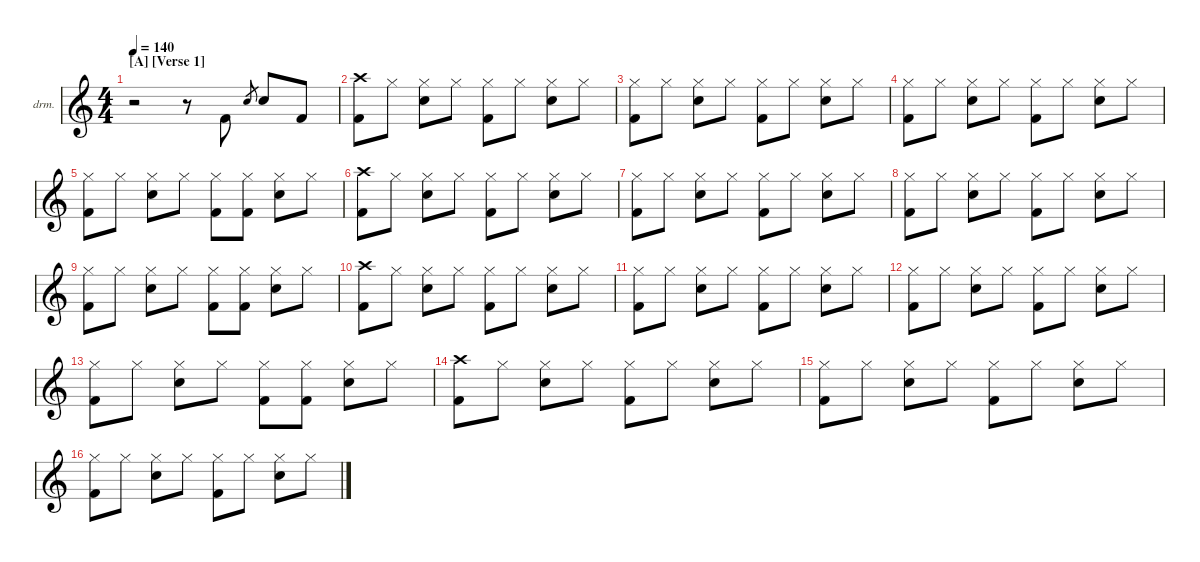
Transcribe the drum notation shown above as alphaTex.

\defaultSystemsLayout 4
\hideDynamics
\bracketExtendMode nobrackets
\firstSystemTrackNameOrientation horizontal
\track ("Sepehr Tajbakhsh {Nick Menza}" "drm.") {instrument percussion}
\staff {score}
\articulation defaults
\ts (4 4)
\beaming (8 2 2 2 2)
\section ("A" "[Verse 1]")
\tempo 140
\clef g2
\ks c
r.2{dy f beam Down} r.8{beam Down} "Kick (hit) 2".8{beam Up} "Snare (hit) 2".8{gr beam Up} "Snare (hit) 2".8{beam Up} "Kick (hit) 2".8{beam Up} |
("Crash high (hit)" "Kick (hit) 2").8{beam Down} "Hi-Hat (closed)".8{beam Down} ("Hi-Hat (closed)" "Snare (hit) 2").8{beam Down} "Hi-Hat (closed)".8{beam Down} ("Hi-Hat (closed)" "Kick (hit) 2").8{beam Down} "Hi-Hat (closed)".8{beam Down} ("Hi-Hat (closed)" "Snare (hit) 2").8{beam Down} "Hi-Hat (closed)".8{beam Down} |
("Hi-Hat (closed)" "Kick (hit) 2").8{beam Down} "Hi-Hat (closed)".8{beam Down} ("Hi-Hat (closed)" "Snare (hit) 2").8{beam Down} "Hi-Hat (closed)".8{beam Down} ("Hi-Hat (closed)" "Kick (hit) 2").8{beam Down} "Hi-Hat (closed)".8{beam Down} ("Hi-Hat (closed)" "Snare (hit) 2").8{beam Down} "Hi-Hat (closed)".8{beam Down} |
("Hi-Hat (closed)" "Kick (hit) 2").8{beam Down} "Hi-Hat (closed)".8{beam Down} ("Hi-Hat (closed)" "Snare (hit) 2").8{beam Down} "Hi-Hat (closed)".8{beam Down} ("Hi-Hat (closed)" "Kick (hit) 2").8{beam Down} "Hi-Hat (closed)".8{beam Down} ("Hi-Hat (closed)" "Snare (hit) 2").8{beam Down} "Hi-Hat (closed)".8{beam Down} |
("Hi-Hat (closed)" "Kick (hit) 2").8{beam Down} "Hi-Hat (closed)".8{beam Down} ("Hi-Hat (closed)" "Snare (hit) 2").8{beam Down} "Hi-Hat (closed)".8{beam Down} ("Hi-Hat (closed)" "Kick (hit) 2").8{beam Down} ("Hi-Hat (closed)" "Kick (hit) 2").8{beam Down} ("Hi-Hat (closed)" "Snare (hit) 2").8{beam Down} "Hi-Hat (closed)".8{beam Down} |
("Crash high (hit)" "Kick (hit) 2").8{beam Down} "Hi-Hat (closed)".8{beam Down} ("Hi-Hat (closed)" "Snare (hit) 2").8{beam Down} "Hi-Hat (closed)".8{beam Down} ("Hi-Hat (closed)" "Kick (hit) 2").8{beam Down} "Hi-Hat (closed)".8{beam Down} ("Hi-Hat (closed)" "Snare (hit) 2").8{beam Down} "Hi-Hat (closed)".8{beam Down} |
("Hi-Hat (closed)" "Kick (hit) 2").8{beam Down} "Hi-Hat (closed)".8{beam Down} ("Hi-Hat (closed)" "Snare (hit) 2").8{beam Down} "Hi-Hat (closed)".8{beam Down} ("Hi-Hat (closed)" "Kick (hit) 2").8{beam Down} "Hi-Hat (closed)".8{beam Down} ("Hi-Hat (closed)" "Snare (hit) 2").8{beam Down} "Hi-Hat (closed)".8{beam Down} |
("Hi-Hat (closed)" "Kick (hit) 2").8{beam Down} "Hi-Hat (closed)".8{beam Down} ("Hi-Hat (closed)" "Snare (hit) 2").8{beam Down} "Hi-Hat (closed)".8{beam Down} ("Hi-Hat (closed)" "Kick (hit) 2").8{beam Down} "Hi-Hat (closed)".8{beam Down} ("Hi-Hat (closed)" "Snare (hit) 2").8{beam Down} "Hi-Hat (closed)".8{beam Down} |
("Hi-Hat (closed)" "Kick (hit) 2").8{beam Down} "Hi-Hat (closed)".8{beam Down} ("Hi-Hat (closed)" "Snare (hit) 2").8{beam Down} "Hi-Hat (closed)".8{beam Down} ("Hi-Hat (closed)" "Kick (hit) 2").8{beam Down} ("Hi-Hat (closed)" "Kick (hit) 2").8{beam Down} ("Hi-Hat (closed)" "Snare (hit) 2").8{beam Down} "Hi-Hat (closed)".8{beam Down} |
("Crash high (hit)" "Kick (hit) 2").8{beam Down} "Hi-Hat (closed)".8{beam Down} ("Hi-Hat (closed)" "Snare (hit) 2").8{beam Down} "Hi-Hat (closed)".8{beam Down} ("Hi-Hat (closed)" "Kick (hit) 2").8{beam Down} "Hi-Hat (closed)".8{beam Down} ("Hi-Hat (closed)" "Snare (hit) 2").8{beam Down} "Hi-Hat (closed)".8{beam Down} |
("Hi-Hat (closed)" "Kick (hit) 2").8{beam Down} "Hi-Hat (closed)".8{beam Down} ("Hi-Hat (closed)" "Snare (hit) 2").8{beam Down} "Hi-Hat (closed)".8{beam Down} ("Hi-Hat (closed)" "Kick (hit) 2").8{beam Down} "Hi-Hat (closed)".8{beam Down} ("Hi-Hat (closed)" "Snare (hit) 2").8{beam Down} "Hi-Hat (closed)".8{beam Down} |
("Hi-Hat (closed)" "Kick (hit) 2").8{beam Down} "Hi-Hat (closed)".8{beam Down} ("Hi-Hat (closed)" "Snare (hit) 2").8{beam Down} "Hi-Hat (closed)".8{beam Down} ("Hi-Hat (closed)" "Kick (hit) 2").8{beam Down} "Hi-Hat (closed)".8{beam Down} ("Hi-Hat (closed)" "Snare (hit) 2").8{beam Down} "Hi-Hat (closed)".8{beam Down} |
("Hi-Hat (closed)" "Kick (hit) 2").8{beam Down} "Hi-Hat (closed)".8{beam Down} ("Hi-Hat (closed)" "Snare (hit) 2").8{beam Down} "Hi-Hat (closed)".8{beam Down} ("Hi-Hat (closed)" "Kick (hit) 2").8{beam Down} ("Hi-Hat (closed)" "Kick (hit) 2").8{beam Down} ("Hi-Hat (closed)" "Snare (hit) 2").8{beam Down} "Hi-Hat (closed)".8{beam Down} |
("Crash high (hit)" "Kick (hit) 2").8{beam Down} "Hi-Hat (closed)".8{beam Down} ("Hi-Hat (closed)" "Snare (hit) 2").8{beam Down} "Hi-Hat (closed)".8{beam Down} ("Hi-Hat (closed)" "Kick (hit) 2").8{beam Down} "Hi-Hat (closed)".8{beam Down} ("Hi-Hat (closed)" "Snare (hit) 2").8{beam Down} "Hi-Hat (closed)".8{beam Down} |
("Hi-Hat (closed)" "Kick (hit) 2").8{beam Down} "Hi-Hat (closed)".8{beam Down} ("Hi-Hat (closed)" "Snare (hit) 2").8{beam Down} "Hi-Hat (closed)".8{beam Down} ("Hi-Hat (closed)" "Kick (hit) 2").8{beam Down} "Hi-Hat (closed)".8{beam Down} ("Hi-Hat (closed)" "Snare (hit) 2").8{beam Down} "Hi-Hat (closed)".8{beam Down} |
("Hi-Hat (closed)" "Kick (hit) 2").8{beam Down} "Hi-Hat (closed)".8{beam Down} ("Hi-Hat (closed)" "Snare (hit) 2").8{beam Down} "Hi-Hat (closed)".8{beam Down} ("Hi-Hat (closed)" "Kick (hit) 2").8{beam Down} "Hi-Hat (closed)".8{beam Down} ("Hi-Hat (closed)" "Snare (hit) 2").8{beam Down} "Hi-Hat (closed)".8{beam Down}
